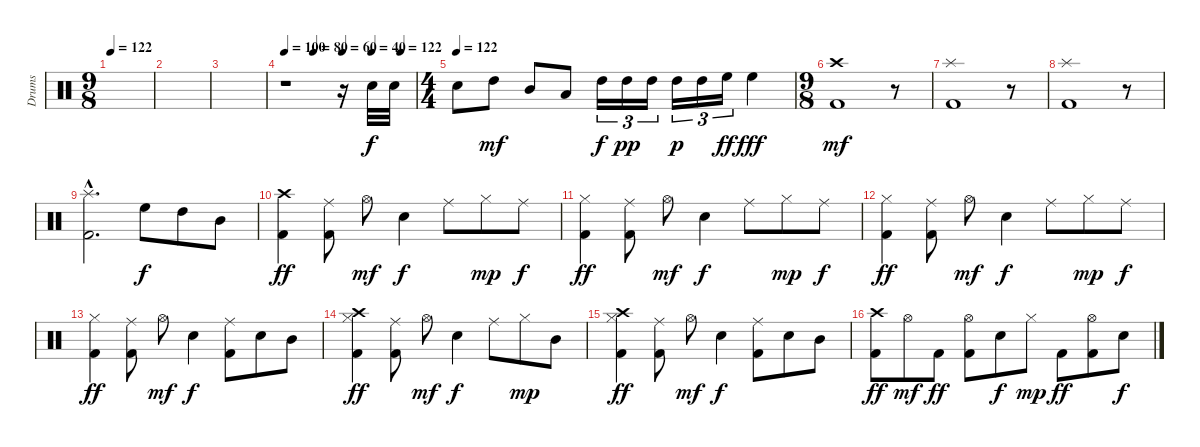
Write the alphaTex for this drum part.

\track ("Drums" "Drums") {instrument percussion}
\staff {score}
\articulation defaults
\ts (9 8)
\tempo 122
\clef neutral
\ks c
|
|
|
\tempo 100
\tempo (80 0.2222222222222222)
\tempo (60 0.4444444444444444)
\tempo (40 0.6666666666666666)
\tempo (122 0.8888888888888888)
r.1 r.16 "Electric Snare (hit)".32 "Electric Snare (hit)".32 |
\ts (4 4)
\tempo (122)
"Electric Snare (hit)".8{dy f} "High Tom (hit)".8{dy mf} "Mid Tom (hit)".8 "Low Tom (hit)".8 "High Tom (hit)".16{tu (3 2) dy f} "High Tom (hit)".16{tu (3 2) dy pp} "High Tom (hit)".16{tu (3 2)} "High Tom (hit)".16{tu (3 2) dy p} "High Tom (hit)".16{tu (3 2)} "High Floor Tom (hit)".16{tu (3 2) dy ff} "High Floor Tom (hit)".4{dy fff} |
\ts (9 8)
("Crash high (hit)" "Kick (hit) 2").1{dy mf} r.8 |
("Splash (hit)" "Kick (hit) 2").1 r.8 |
("Splash (hit)" "Kick (hit) 2").1 r.8 |
("Splash (hit)"{hac} "Kick (hit) 2"{hac}).2{d} "High Floor Tom (hit)".8{dy f} "High Tom (hit)".8 "Mid Tom (hit)".8 |
("Crash high (hit)" "Kick (hit) 2").4{dy ff} ("Ride (middle)" "Kick (hit) 2").8 "Hi-Hat (open)".8{dy mf} "Electric Snare (hit)".4{dy f} "Ride (middle)".8 "Hi-Hat (closed)".8{dy mp} "Ride (middle)".8{dy f} |
("Hi-Hat (closed)" "Kick (hit) 2").4{dy ff} ("Ride (middle)" "Kick (hit) 2").8 "Hi-Hat (open)".8{dy mf} "Electric Snare (hit)".4{dy f} "Ride (middle)".8 "Hi-Hat (closed)".8{dy mp} "Ride (middle)".8{dy f} |
("Hi-Hat (closed)" "Kick (hit) 2").4{dy ff} ("Ride (middle)" "Kick (hit) 2").8 "Hi-Hat (open)".8{dy mf} "Electric Snare (hit)".4{dy f} "Ride (middle)".8 "Hi-Hat (closed)".8{dy mp} "Ride (middle)".8{dy f} |
("Hi-Hat (closed)" "Kick (hit) 2").4{dy ff} ("Ride (middle)" "Kick (hit) 2").8 "Hi-Hat (open)".8{dy mf} "Electric Snare (hit)".4{dy f} ("Ride (middle)" "Kick (hit) 2").8 "Electric Snare (hit)".8 "Mid Tom (hit)".8 |
("Crash high (hit)" "Hi-Hat (closed)" "Kick (hit) 2").4{dy ff} ("Ride (middle)" "Kick (hit) 2").8 "Hi-Hat (open)".8{dy mf} "Electric Snare (hit)".4{dy f} "Ride (middle)".8 "Hi-Hat (closed)".8{dy mp} "Mid Tom (hit)".8 |
("Crash high (hit)" "Hi-Hat (closed)" "Kick (hit) 2").4{dy ff} ("Ride (middle)" "Kick (hit) 2").8 "Hi-Hat (open)".8{dy mf} "Electric Snare (hit)".4{dy f} ("Ride (middle)" "Kick (hit) 2").8 "Electric Snare (hit)".8 "Mid Tom (hit)".8 |
("Crash high (hit)" "Kick (hit) 2").8{dy ff} "Hi-Hat (open)".8{dy mf} "Kick (hit) 2".8{dy ff} ("Hi-Hat (open)" "Kick (hit) 2").8 "Electric Snare (hit)".8{dy f} "Hi-Hat (closed)".8{dy mp} "Kick (hit) 2".8{dy ff} ("Hi-Hat (open)" "Kick (hit) 2").8 "Electric Snare (hit)".8{dy f}
